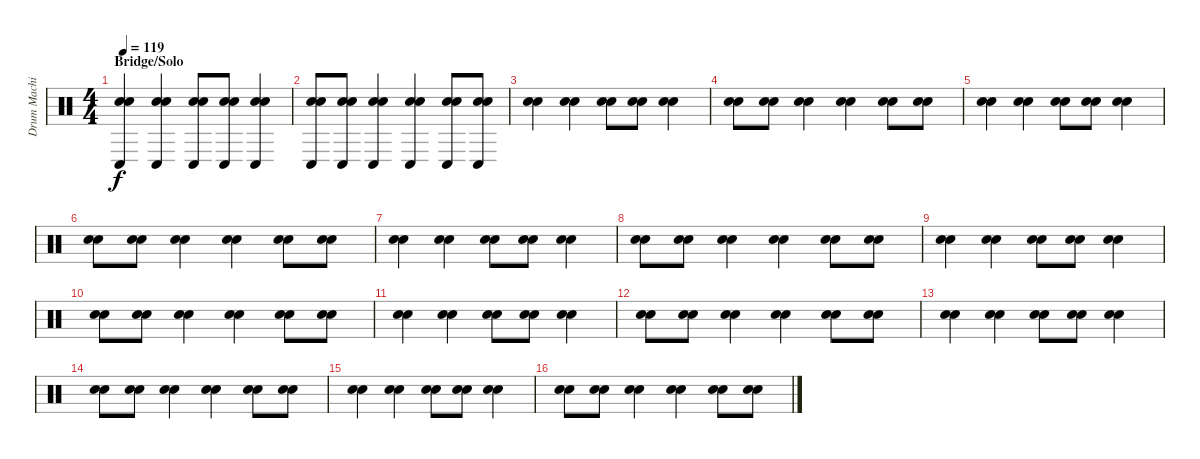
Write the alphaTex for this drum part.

\track ("Drum Machine" "Drum Machi") {instrument percussion}
\staff {score}
\articulation defaults
\ts (4 4)
\section ("" "Bridge/Solo")
\tempo 119
\clef neutral
\ks c
("Hand Clap (hit)" "Hand Clap (hit)" "Conga low (hit)").4{dy f} ("Hand Clap (hit)" "Hand Clap (hit)" "Conga low (hit)").4 ("Hand Clap (hit)" "Hand Clap (hit)" "Conga low (hit)").8 ("Hand Clap (hit)" "Hand Clap (hit)" "Conga low (hit)").8 ("Hand Clap (hit)" "Hand Clap (hit)" "Conga low (hit)").4 |
("Hand Clap (hit)" "Hand Clap (hit)" "Conga low (hit)").8 ("Hand Clap (hit)" "Hand Clap (hit)" "Conga low (hit)").8 ("Hand Clap (hit)" "Hand Clap (hit)" "Conga low (hit)").4 ("Hand Clap (hit)" "Hand Clap (hit)" "Conga low (hit)").4 ("Hand Clap (hit)" "Hand Clap (hit)" "Conga low (hit)").8 ("Hand Clap (hit)" "Hand Clap (hit)" "Conga low (hit)").8 |
("Hand Clap (hit)" "Hand Clap (hit)").4 ("Hand Clap (hit)" "Hand Clap (hit)").4 ("Hand Clap (hit)" "Hand Clap (hit)").8 ("Hand Clap (hit)" "Hand Clap (hit)").8 ("Hand Clap (hit)" "Hand Clap (hit)").4 |
("Hand Clap (hit)" "Hand Clap (hit)").8 ("Hand Clap (hit)" "Hand Clap (hit)").8 ("Hand Clap (hit)" "Hand Clap (hit)").4 ("Hand Clap (hit)" "Hand Clap (hit)").4 ("Hand Clap (hit)" "Hand Clap (hit)").8 ("Hand Clap (hit)" "Hand Clap (hit)").8 |
("Hand Clap (hit)" "Hand Clap (hit)").4 ("Hand Clap (hit)" "Hand Clap (hit)").4 ("Hand Clap (hit)" "Hand Clap (hit)").8 ("Hand Clap (hit)" "Hand Clap (hit)").8 ("Hand Clap (hit)" "Hand Clap (hit)").4 |
("Hand Clap (hit)" "Hand Clap (hit)").8 ("Hand Clap (hit)" "Hand Clap (hit)").8 ("Hand Clap (hit)" "Hand Clap (hit)").4 ("Hand Clap (hit)" "Hand Clap (hit)").4 ("Hand Clap (hit)" "Hand Clap (hit)").8 ("Hand Clap (hit)" "Hand Clap (hit)").8 |
("Hand Clap (hit)" "Hand Clap (hit)").4 ("Hand Clap (hit)" "Hand Clap (hit)").4 ("Hand Clap (hit)" "Hand Clap (hit)").8 ("Hand Clap (hit)" "Hand Clap (hit)").8 ("Hand Clap (hit)" "Hand Clap (hit)").4 |
("Hand Clap (hit)" "Hand Clap (hit)").8 ("Hand Clap (hit)" "Hand Clap (hit)").8 ("Hand Clap (hit)" "Hand Clap (hit)").4 ("Hand Clap (hit)" "Hand Clap (hit)").4 ("Hand Clap (hit)" "Hand Clap (hit)").8 ("Hand Clap (hit)" "Hand Clap (hit)").8 |
("Hand Clap (hit)" "Hand Clap (hit)").4 ("Hand Clap (hit)" "Hand Clap (hit)").4 ("Hand Clap (hit)" "Hand Clap (hit)").8 ("Hand Clap (hit)" "Hand Clap (hit)").8 ("Hand Clap (hit)" "Hand Clap (hit)").4 |
("Hand Clap (hit)" "Hand Clap (hit)").8 ("Hand Clap (hit)" "Hand Clap (hit)").8 ("Hand Clap (hit)" "Hand Clap (hit)").4 ("Hand Clap (hit)" "Hand Clap (hit)").4 ("Hand Clap (hit)" "Hand Clap (hit)").8 ("Hand Clap (hit)" "Hand Clap (hit)").8 |
("Hand Clap (hit)" "Hand Clap (hit)").4 ("Hand Clap (hit)" "Hand Clap (hit)").4 ("Hand Clap (hit)" "Hand Clap (hit)").8 ("Hand Clap (hit)" "Hand Clap (hit)").8 ("Hand Clap (hit)" "Hand Clap (hit)").4 |
("Hand Clap (hit)" "Hand Clap (hit)").8 ("Hand Clap (hit)" "Hand Clap (hit)").8 ("Hand Clap (hit)" "Hand Clap (hit)").4 ("Hand Clap (hit)" "Hand Clap (hit)").4 ("Hand Clap (hit)" "Hand Clap (hit)").8 ("Hand Clap (hit)" "Hand Clap (hit)").8 |
("Hand Clap (hit)" "Hand Clap (hit)").4 ("Hand Clap (hit)" "Hand Clap (hit)").4 ("Hand Clap (hit)" "Hand Clap (hit)").8 ("Hand Clap (hit)" "Hand Clap (hit)").8 ("Hand Clap (hit)" "Hand Clap (hit)").4 |
("Hand Clap (hit)" "Hand Clap (hit)").8 ("Hand Clap (hit)" "Hand Clap (hit)").8 ("Hand Clap (hit)" "Hand Clap (hit)").4 ("Hand Clap (hit)" "Hand Clap (hit)").4 ("Hand Clap (hit)" "Hand Clap (hit)").8 ("Hand Clap (hit)" "Hand Clap (hit)").8 |
("Hand Clap (hit)" "Hand Clap (hit)").4 ("Hand Clap (hit)" "Hand Clap (hit)").4 ("Hand Clap (hit)" "Hand Clap (hit)").8 ("Hand Clap (hit)" "Hand Clap (hit)").8 ("Hand Clap (hit)" "Hand Clap (hit)").4 |
("Hand Clap (hit)" "Hand Clap (hit)").8 ("Hand Clap (hit)" "Hand Clap (hit)").8 ("Hand Clap (hit)" "Hand Clap (hit)").4 ("Hand Clap (hit)" "Hand Clap (hit)").4 ("Hand Clap (hit)" "Hand Clap (hit)").8 ("Hand Clap (hit)" "Hand Clap (hit)").8
